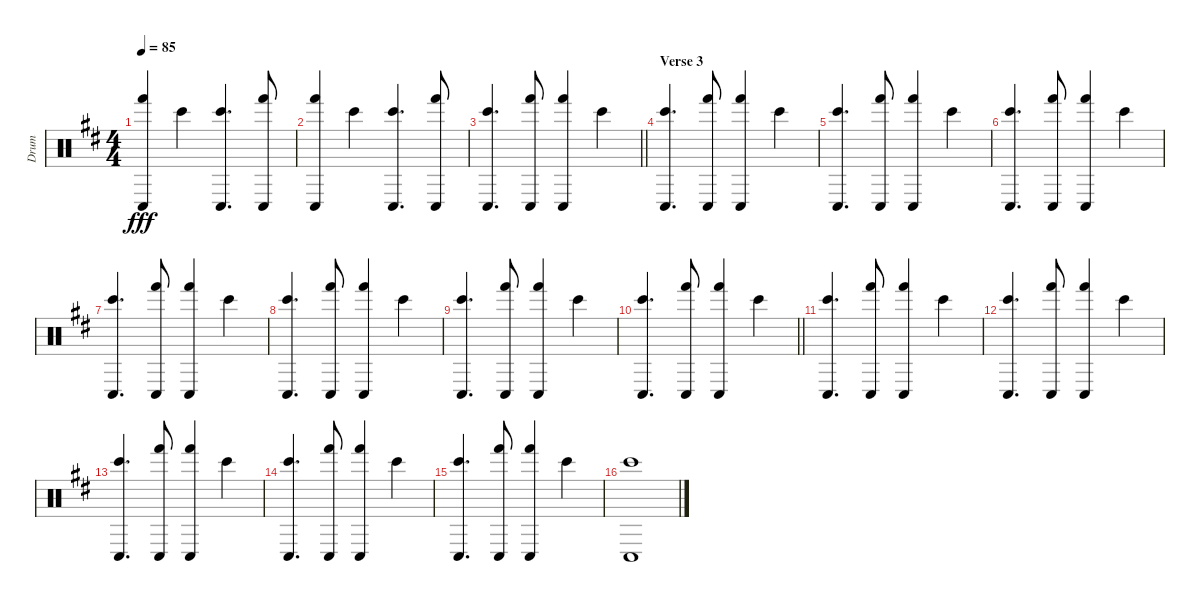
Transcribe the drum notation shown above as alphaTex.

\track ("Drum " "Drum ") {instrument percussion}
\staff {score}
\articulation defaults
\ts (4 4)
\tempo 85
\clef neutral
\ks d
("Conga low (hit)" "Hand (hit)").4{dy fff} "Bongo High (hit)".4 ("Conga low (hit)" "Bongo High (hit)").4{d} ("Conga low (hit)" "Hand (hit)").8 |
("Conga low (hit)" "Hand (hit)").4 "Bongo High (hit)".4 ("Conga low (hit)" "Bongo High (hit)").4{d} ("Conga low (hit)" "Hand (hit)").8 |
\barLineRight lightlight
("Conga low (hit)" "Bongo High (hit)").4{d} ("Conga low (hit)" "Hand (hit)").8 ("Conga low (hit)" "Hand (hit)").4 "Bongo High (hit)".4 |
\section ("" "Verse 3")
("Conga low (hit)" "Bongo High (hit)").4{d} ("Conga low (hit)" "Hand (hit)").8 ("Conga low (hit)" "Hand (hit)").4 "Bongo High (hit)".4 |
("Conga low (hit)" "Bongo High (hit)").4{d} ("Conga low (hit)" "Hand (hit)").8 ("Conga low (hit)" "Hand (hit)").4 "Bongo High (hit)".4 |
("Conga low (hit)" "Bongo High (hit)").4{d} ("Conga low (hit)" "Hand (hit)").8 ("Conga low (hit)" "Hand (hit)").4 "Bongo High (hit)".4 |
("Conga low (hit)" "Bongo High (hit)").4{d} ("Conga low (hit)" "Hand (hit)").8 ("Conga low (hit)" "Hand (hit)").4 "Bongo High (hit)".4 |
("Conga low (hit)" "Bongo High (hit)").4{d} ("Conga low (hit)" "Hand (hit)").8 ("Conga low (hit)" "Hand (hit)").4 "Bongo High (hit)".4 |
("Conga low (hit)" "Bongo High (hit)").4{d} ("Conga low (hit)" "Hand (hit)").8 ("Conga low (hit)" "Hand (hit)").4 "Bongo High (hit)".4 |
\barLineRight lightlight
("Conga low (hit)" "Bongo High (hit)").4{d} ("Conga low (hit)" "Hand (hit)").8 ("Conga low (hit)" "Hand (hit)").4 "Bongo High (hit)".4 |
\section ("" "")
("Conga low (hit)" "Bongo High (hit)").4{d} ("Conga low (hit)" "Hand (hit)").8 ("Conga low (hit)" "Hand (hit)").4 "Bongo High (hit)".4 |
("Conga low (hit)" "Bongo High (hit)").4{d} ("Conga low (hit)" "Hand (hit)").8 ("Conga low (hit)" "Hand (hit)").4 "Bongo High (hit)".4 |
("Conga low (hit)" "Bongo High (hit)").4{d} ("Conga low (hit)" "Hand (hit)").8 ("Conga low (hit)" "Hand (hit)").4 "Bongo High (hit)".4 |
("Conga low (hit)" "Bongo High (hit)").4{d} ("Conga low (hit)" "Hand (hit)").8 ("Conga low (hit)" "Hand (hit)").4 "Bongo High (hit)".4 |
("Conga low (hit)" "Bongo High (hit)").4{d} ("Conga low (hit)" "Hand (hit)").8 ("Conga low (hit)" "Hand (hit)").4 "Bongo High (hit)".4 |
("Conga low (hit)" "Bongo High (hit)").1
